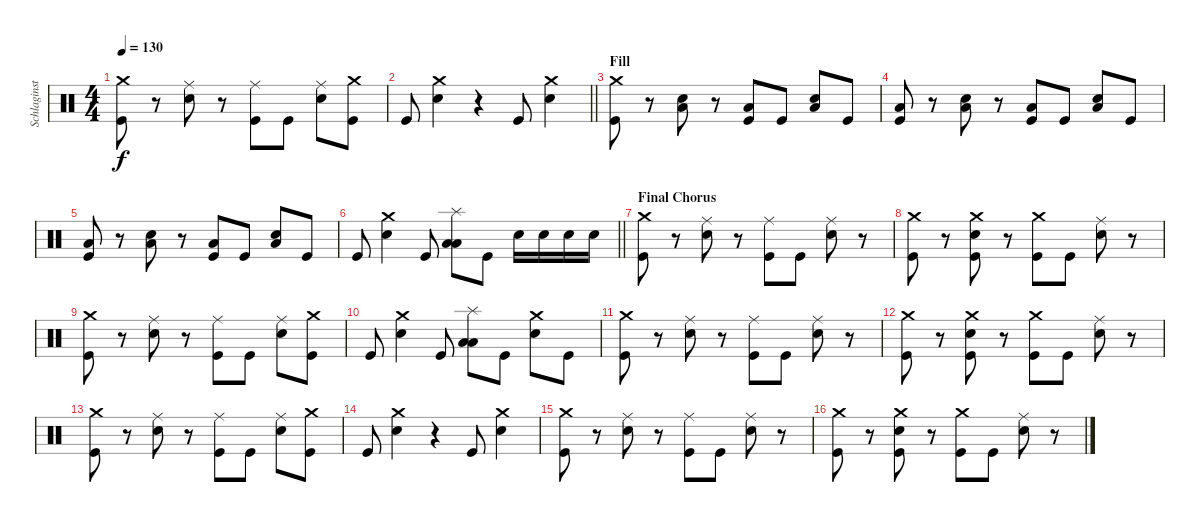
\track ("Schlaginstrumente - Auswahl" "Schlaginst") {instrument percussion}
\staff {score}
\articulation defaults
\ts (4 4)
\tempo 130
\clef neutral
\ks c
("Crash medium (hit)" "Kick (hit)").8{dy f} r.8 ("Ride (middle)" "Snare (hit) 2").8 r.8 ("Ride (middle)" "Kick (hit)").8 "Kick (hit)".8 ("Ride (middle)" "Snare (hit) 2").8 ("Crash medium (hit)" "Kick (hit)").8 |
\barLineRight lightlight "Kick (hit)".8
("Crash medium (hit)" "Snare (hit) 2").4 r.4 "Kick (hit)".8 ("Crash medium (hit)" "Snare (hit) 2").4 |
\section ("" "Fill")
("Crash medium (hit)" "Kick (hit)").8 r.8 ("Low Tom (hit)" "Snare (hit) 2").8 r.8 ("Low Tom (hit)" "Kick (hit)").8 "Kick (hit)".8 ("Low Tom (hit)" "Snare (hit) 2").8 "Kick (hit)".8 |
("Low Tom (hit)" "Kick (hit)").8 r.8 ("Low Tom (hit)" "Snare (hit) 2").8 r.8 ("Low Tom (hit)" "Kick (hit)").8 "Kick (hit)".8 ("Low Tom (hit)" "Snare (hit) 2").8 "Kick (hit)".8 |
("Low Tom (hit)" "Kick (hit)").8 r.8 ("Low Tom (hit)" "Snare (hit) 2").8 r.8 ("Low Tom (hit)" "Kick (hit)").8 "Kick (hit)".8 ("Low Tom (hit)" "Snare (hit) 2").8 "Kick (hit)".8 |
\barLineRight lightlight "Kick (hit)".8
("Crash medium (hit)" "Snare (hit) 2").4 "Kick (hit)".8 ("Splash (hit)" "Low Tom (hit)" "Low Tom (hit)").8 "Kick (hit)".8 "Snare (hit) 2".16 "Snare (hit) 2".16 "Snare (hit) 2".16 "Snare (hit) 2".16 |
\section ("" "Final Chorus")
("Crash medium (hit)" "Kick (hit)").8 r.8 ("Ride (middle)" "Snare (hit) 2").8 r.8 ("Ride (middle)" "Kick (hit)").8 "Kick (hit)".8 ("Ride (middle)" "Snare (hit) 2").8 r.8 |
("Crash medium (hit)" "Kick (hit)").8 r.8 ("Crash medium (hit)" "Snare (hit) 2" "Kick (hit)").8 r.8 ("Crash medium (hit)" "Kick (hit)").8 "Kick (hit)".8 ("Ride (middle)" "Snare (hit) 2").8 r.8 |
("Crash medium (hit)" "Kick (hit)").8 r.8 ("Ride (middle)" "Snare (hit) 2").8 r.8 ("Ride (middle)" "Kick (hit)").8 "Kick (hit)".8 ("Ride (middle)" "Snare (hit) 2").8 ("Crash medium (hit)" "Kick (hit)").8 |
"Kick (hit)".8 ("Crash medium (hit)" "Snare (hit) 2").4 "Kick (hit)".8 ("Splash (hit)" "Low Tom (hit)" "Low Tom (hit)").8 "Kick (hit)".8 ("Crash medium (hit)" "Snare (hit) 2").8 "Kick (hit)".8 |
("Crash medium (hit)" "Kick (hit)").8 r.8 ("Ride (middle)" "Snare (hit) 2").8 r.8 ("Ride (middle)" "Kick (hit)").8 "Kick (hit)".8 ("Ride (middle)" "Snare (hit) 2").8 r.8 |
("Crash medium (hit)" "Kick (hit)").8 r.8 ("Crash medium (hit)" "Snare (hit) 2" "Kick (hit)").8 r.8 ("Crash medium (hit)" "Kick (hit)").8 "Kick (hit)".8 ("Ride (middle)" "Snare (hit) 2").8 r.8 |
("Crash medium (hit)" "Kick (hit)").8 r.8 ("Ride (middle)" "Snare (hit) 2").8 r.8 ("Ride (middle)" "Kick (hit)").8 "Kick (hit)".8 ("Ride (middle)" "Snare (hit) 2").8 ("Crash medium (hit)" "Kick (hit)").8 |
"Kick (hit)".8 ("Crash medium (hit)" "Snare (hit) 2").4 r.4 "Kick (hit)".8 ("Crash medium (hit)" "Snare (hit) 2").4 |
("Crash medium (hit)" "Kick (hit)").8 r.8 ("Ride (middle)" "Snare (hit) 2").8 r.8 ("Ride (middle)" "Kick (hit)").8 "Kick (hit)".8 ("Ride (middle)" "Snare (hit) 2").8 r.8 |
("Crash medium (hit)" "Kick (hit)").8 r.8 ("Crash medium (hit)" "Snare (hit) 2" "Kick (hit)").8 r.8 ("Crash medium (hit)" "Kick (hit)").8 "Kick (hit)".8 ("Ride (middle)" "Snare (hit) 2").8 r.8
